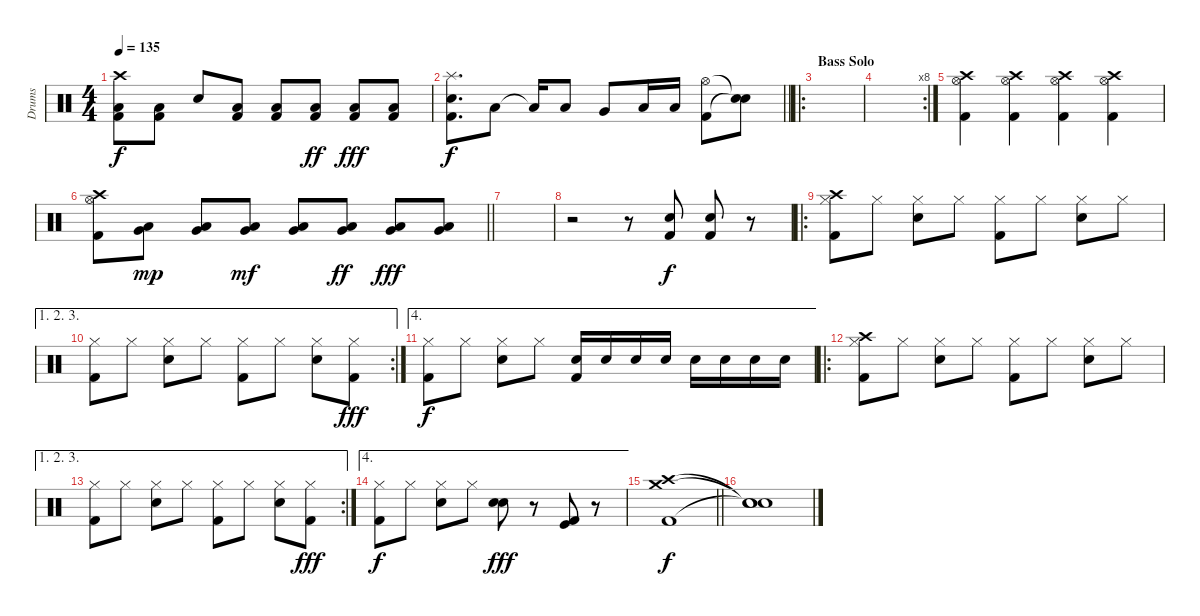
\track ("Drums" "Drums") {instrument percussion}
\staff {score}
\articulation defaults
\ts (4 4)
\tempo 135
\clef neutral
\ks c
("Crash high (hit)" "Low Floor Tom (hit)" "Kick (hit) 2").8{dy f} ("Low Floor Tom (hit)" "Kick (hit) 2").8 "Electric Snare (hit)".8 ("Low Floor Tom (hit)" "Kick (hit) 2").8 ("Low Floor Tom (hit)" "Kick (hit) 2").8 ("Low Floor Tom (hit)" "Kick (hit) 2").8{dy ff} ("Low Floor Tom (hit)" "Kick (hit) 2").8{dy fff} ("Low Floor Tom (hit)" "Kick (hit) 2").8 |
\barLineRight lightlight
("Splash (hit)" "Electric Snare (hit)" "Kick (hit) 2").8{d dy f} "Low Tom (hit)".8 "Low Tom (hit)"{t}.16 "Low Tom (hit)".8 "Very Low Tom (hit)".8 "Low Floor Tom (hit)".16 "Low Floor Tom (hit)".16 ("Hi-Hat (open)" "Kick (hit) 2").8 ("Snare (hit)"{t} "Snare (hit)"{t}).8 |
\ro
\section ("" "Bass Solo")
|
\rc 8
|
("Crash high (hit)" "Hi-Hat (open)" "Kick (hit) 2").4 ("Crash high (hit)" "Hi-Hat (open)" "Kick (hit) 2").4 ("Crash high (hit)" "Hi-Hat (open)" "Kick (hit) 2").4 ("Crash high (hit)" "Hi-Hat (open)" "Kick (hit) 2").4 |
\barLineRight lightlight
("Crash high (hit)" "Hi-Hat (open)" "Kick (hit) 2").8 ("Very Low Tom (hit)" "Low Floor Tom (hit)").8{dy mp} ("Very Low Tom (hit)" "Low Floor Tom (hit)").8 ("Very Low Tom (hit)" "Low Floor Tom (hit)").8{dy mf} ("Very Low Tom (hit)" "Low Floor Tom (hit)").8 ("Very Low Tom (hit)" "Low Floor Tom (hit)").8{dy ff} ("Very Low Tom (hit)" "Low Floor Tom (hit)").8{dy fff} ("Very Low Tom (hit)" "Low Floor Tom (hit)").8 |
|
r.2 r.8 ("Electric Snare (hit)" "Kick (hit) 2").8{dy f} ("Electric Snare (hit)" "Kick (hit) 2").8 r.8 |
\ro
("Crash high (hit)" "Hi-Hat (closed)" "Kick (hit) 2").8 "Hi-Hat (closed)".8 ("Hi-Hat (closed)" "Electric Snare (hit)").8 "Hi-Hat (closed)".8 ("Hi-Hat (closed)" "Kick (hit) 2").8 "Hi-Hat (closed)".8 ("Hi-Hat (closed)" "Electric Snare (hit)").8 "Hi-Hat (closed)".8 |
\ae (1 2 3)
\rc 2
("Hi-Hat (closed)" "Kick (hit) 2").8 "Hi-Hat (closed)".8 ("Hi-Hat (closed)" "Electric Snare (hit)").8 "Hi-Hat (closed)".8 ("Hi-Hat (closed)" "Kick (hit) 2").8 "Hi-Hat (closed)".8 ("Hi-Hat (closed)" "Electric Snare (hit)").8 ("Hi-Hat (closed)" "Kick (hit) 2").8{dy fff} |
\ae 4
("Hi-Hat (closed)" "Kick (hit) 2").8{dy f} "Hi-Hat (closed)".8 ("Hi-Hat (closed)" "Electric Snare (hit)").8 "Hi-Hat (closed)".8 ("Electric Snare (hit)" "Kick (hit) 2").16 "Electric Snare (hit)".16 "Electric Snare (hit)".16 "Electric Snare (hit)".16 "Electric Snare (hit)".16 "Electric Snare (hit)".16 "Electric Snare (hit)".16 "Electric Snare (hit)".16 |
\ro
("Crash high (hit)" "Hi-Hat (closed)" "Kick (hit) 2").8 "Hi-Hat (closed)".8 ("Hi-Hat (closed)" "Electric Snare (hit)").8 "Hi-Hat (closed)".8 ("Hi-Hat (closed)" "Kick (hit) 2").8 "Hi-Hat (closed)".8 ("Hi-Hat (closed)" "Electric Snare (hit)").8 "Hi-Hat (closed)".8 |
\ae (1 2 3)
\rc 2
("Hi-Hat (closed)" "Kick (hit) 2").8 "Hi-Hat (closed)".8 ("Hi-Hat (closed)" "Electric Snare (hit)").8 "Hi-Hat (closed)".8 ("Hi-Hat (closed)" "Kick (hit) 2").8 "Hi-Hat (closed)".8 ("Hi-Hat (closed)" "Electric Snare (hit)").8 ("Hi-Hat (closed)" "Kick (hit) 2").8{dy fff} |
\ae 4
("Hi-Hat (closed)" "Kick (hit) 2").8{dy f} "Hi-Hat (closed)".8 ("Hi-Hat (closed)" "Electric Snare (hit)").8 "Hi-Hat (closed)".8 ("Snare (hit) 2" "Electric Snare (hit)").8{dy fff} r.8 ("Kick (hit)" "Kick (hit) 2").8 r.8 |
\barLineRight lightlight
("Crash medium (hit)" "Crash high (hit)" "Kick (hit) 2").1{dy f} |
("Snare (hit)"{t} "Snare (hit)"{t} "Snare (hit)"{t}).1
